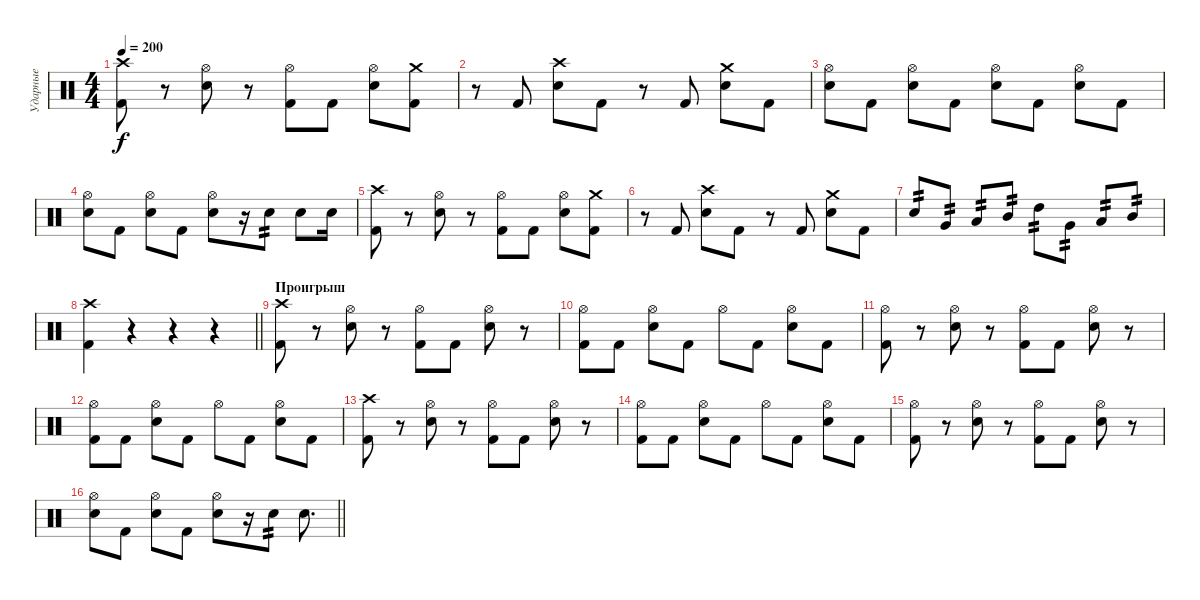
\track ("Ударные" "Ударные") {instrument percussion}
\staff {score}
\articulation defaults
\ts (4 4)
\tempo 200
\clef neutral
\ks c
("Crash high (hit)" "Kick (hit) 2").8{dy f} r.8 ("Hi-Hat (open)" "Electric Snare (hit)").8 r.8 ("Hi-Hat (open)" "Kick (hit) 2").8 "Kick (hit) 2".8 ("Hi-Hat (open)" "Electric Snare (hit)").8 ("Crash medium (hit)" "Kick (hit) 2").8 |
r.8 "Kick (hit) 2".8 ("Crash high (hit)" "Electric Snare (hit)").8 "Kick (hit) 2".8 r.8 "Kick (hit) 2".8 ("Crash medium (hit)" "Electric Snare (hit)").8 "Kick (hit) 2".8 |
("Hi-Hat (open)" "Electric Snare (hit)").8 "Kick (hit) 2".8 ("Hi-Hat (open)" "Electric Snare (hit)").8 "Kick (hit) 2".8 ("Hi-Hat (open)" "Electric Snare (hit)").8 "Kick (hit) 2".8 ("Hi-Hat (open)" "Electric Snare (hit)").8 "Kick (hit) 2".8 |
("Hi-Hat (open)" "Electric Snare (hit)").8 "Kick (hit) 2".8 ("Hi-Hat (open)" "Electric Snare (hit)").8 "Kick (hit) 2".8 ("Hi-Hat (open)" "Electric Snare (hit)").8 r.16 "Electric Snare (hit)".8{tp 2} "Electric Snare (hit)".8 "Electric Snare (hit)".16 |
("Crash high (hit)" "Kick (hit) 2").8 r.8 ("Hi-Hat (open)" "Electric Snare (hit)").8 r.8 ("Hi-Hat (open)" "Kick (hit) 2").8 "Kick (hit) 2".8 ("Hi-Hat (open)" "Electric Snare (hit)").8 ("Crash medium (hit)" "Kick (hit) 2").8 |
r.8 "Kick (hit) 2".8 ("Crash high (hit)" "Electric Snare (hit)").8 "Kick (hit) 2".8 r.8 "Kick (hit) 2".8 ("Crash medium (hit)" "Electric Snare (hit)").8 "Kick (hit) 2".8 |
"Electric Snare (hit)".8{tp 2} "Very Low Tom (hit)".8{tp 2} "Low Tom (hit)".8{tp 2} "Mid Tom (hit)".8{tp 2} "High Tom (hit)".8{tp 2} "Very Low Tom (hit)".8{tp 2} "Low Tom (hit)".8{tp 2} "Mid Tom (hit)".8{tp 2} |
\barLineRight lightlight
("Crash high (hit)" "Kick (hit) 2").4 r.4 r.4 r.4 |
\section ("" "Проигрыш")
("Crash high (hit)" "Kick (hit) 2").8 r.8 ("Hi-Hat (open)" "Electric Snare (hit)").8 r.8 ("Hi-Hat (open)" "Kick (hit) 2").8 "Kick (hit) 2".8 ("Hi-Hat (open)" "Electric Snare (hit)").8 r.8 |
("Hi-Hat (open)" "Kick (hit) 2").8 "Kick (hit) 2".8 ("Hi-Hat (open)" "Electric Snare (hit)").8 "Kick (hit) 2".8 "Hi-Hat (open)".8 "Kick (hit) 2".8 ("Hi-Hat (open)" "Electric Snare (hit)").8 "Kick (hit) 2".8 |
("Hi-Hat (open)" "Kick (hit) 2").8 r.8 ("Hi-Hat (open)" "Electric Snare (hit)").8 r.8 ("Hi-Hat (open)" "Kick (hit) 2").8 "Kick (hit) 2".8 ("Hi-Hat (open)" "Electric Snare (hit)").8 r.8 |
("Hi-Hat (open)" "Kick (hit) 2").8 "Kick (hit) 2".8 ("Hi-Hat (open)" "Electric Snare (hit)").8 "Kick (hit) 2".8 "Hi-Hat (open)".8 "Kick (hit) 2".8 ("Hi-Hat (open)" "Electric Snare (hit)").8 "Kick (hit) 2".8 |
("Crash high (hit)" "Kick (hit) 2").8 r.8 ("Hi-Hat (open)" "Electric Snare (hit)").8 r.8 ("Hi-Hat (open)" "Kick (hit) 2").8 "Kick (hit) 2".8 ("Hi-Hat (open)" "Electric Snare (hit)").8 r.8 |
("Hi-Hat (open)" "Kick (hit) 2").8 "Kick (hit) 2".8 ("Hi-Hat (open)" "Electric Snare (hit)").8 "Kick (hit) 2".8 "Hi-Hat (open)".8 "Kick (hit) 2".8 ("Hi-Hat (open)" "Electric Snare (hit)").8 "Kick (hit) 2".8 |
("Hi-Hat (open)" "Kick (hit) 2").8 r.8 ("Hi-Hat (open)" "Electric Snare (hit)").8 r.8 ("Hi-Hat (open)" "Kick (hit) 2").8 "Kick (hit) 2".8 ("Hi-Hat (open)" "Electric Snare (hit)").8 r.8 |
\barLineRight lightlight
("Hi-Hat (open)" "Electric Snare (hit)").8 "Kick (hit) 2".8 ("Hi-Hat (open)" "Electric Snare (hit)").8 "Kick (hit) 2".8 ("Hi-Hat (open)" "Electric Snare (hit)").8 r.16 "Electric Snare (hit)".8{tp 2} "Electric Snare (hit)".8{d}
